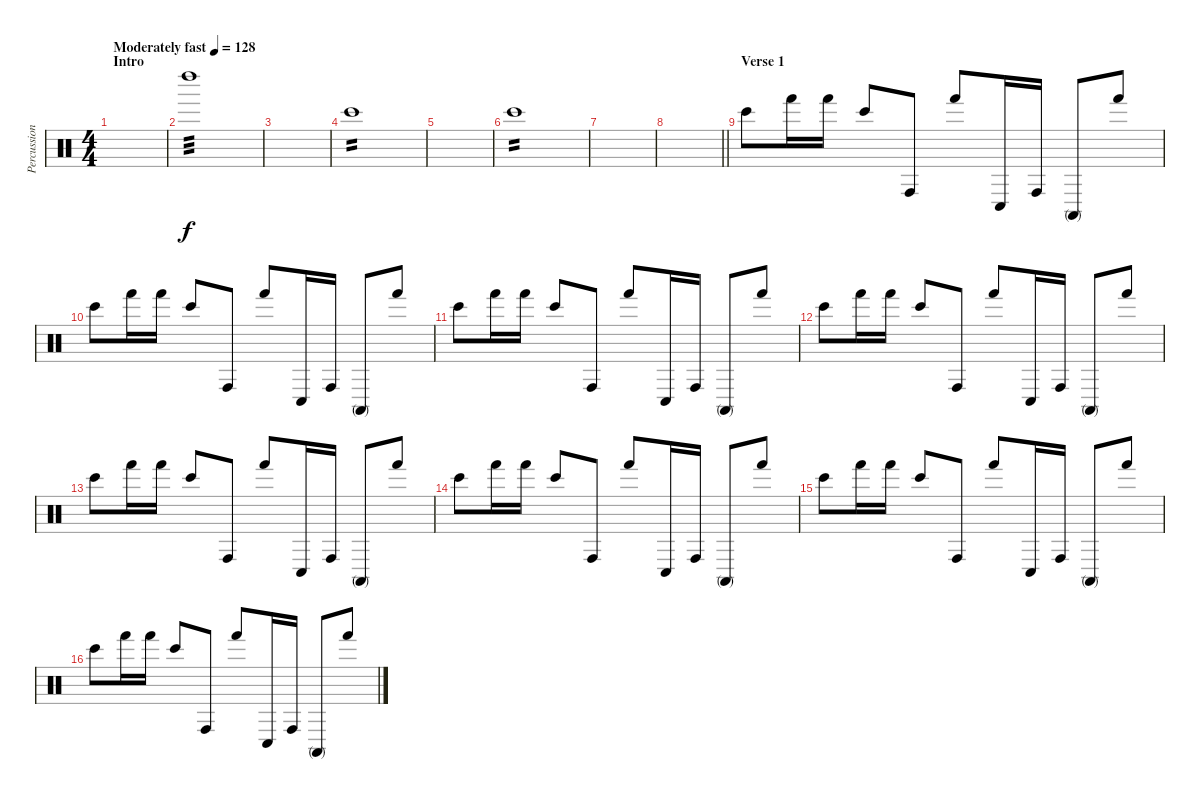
\track ("Percussioni" "Percussion") {instrument percussion}
\staff {score}
\articulation defaults
\ts (4 4)
\section ("" "Intro")
\tempo (128 "Moderately fast")
\clef neutral
\ks c
|
"Left Maraca (hit)".1{tp 3} |
|
"Bongo High (hit)".1{tp 2} |
|
"Bongo High (hit)".1{tp 2} |
|
\barLineRight lightlight
|
\section ("" "Verse 1")
"Bongo High (hit)".8 "Hand (hit)".16 "Hand (hit)".16 "Bongo High (hit)".8 "Conga high (hit)".8 "Hand (hit)".8 "Conga low (hit)".16 "Conga high (hit)".16 "Conga high (mute)".8 "Hand (hit)".8 |
"Bongo High (hit)".8 "Hand (hit)".16 "Hand (hit)".16 "Bongo High (hit)".8 "Conga high (hit)".8 "Hand (hit)".8 "Conga low (hit)".16 "Conga high (hit)".16 "Conga high (mute)".8 "Hand (hit)".8 |
"Bongo High (hit)".8 "Hand (hit)".16 "Hand (hit)".16 "Bongo High (hit)".8 "Conga high (hit)".8 "Hand (hit)".8 "Conga low (hit)".16 "Conga high (hit)".16 "Conga high (mute)".8 "Hand (hit)".8 |
"Bongo High (hit)".8 "Hand (hit)".16 "Hand (hit)".16 "Bongo High (hit)".8 "Conga high (hit)".8 "Hand (hit)".8 "Conga low (hit)".16 "Conga high (hit)".16 "Conga high (mute)".8 "Hand (hit)".8 |
"Bongo High (hit)".8 "Hand (hit)".16 "Hand (hit)".16 "Bongo High (hit)".8 "Conga high (hit)".8 "Hand (hit)".8 "Conga low (hit)".16 "Conga high (hit)".16 "Conga high (mute)".8 "Hand (hit)".8 |
"Bongo High (hit)".8 "Hand (hit)".16 "Hand (hit)".16 "Bongo High (hit)".8 "Conga high (hit)".8 "Hand (hit)".8 "Conga low (hit)".16 "Conga high (hit)".16 "Conga high (mute)".8 "Hand (hit)".8 |
"Bongo High (hit)".8 "Hand (hit)".16 "Hand (hit)".16 "Bongo High (hit)".8 "Conga high (hit)".8 "Hand (hit)".8 "Conga low (hit)".16 "Conga high (hit)".16 "Conga high (mute)".8 "Hand (hit)".8 |
"Bongo High (hit)".8 "Hand (hit)".16 "Hand (hit)".16 "Bongo High (hit)".8 "Conga high (hit)".8 "Hand (hit)".8 "Conga low (hit)".16 "Conga high (hit)".16 "Conga high (mute)".8 "Hand (hit)".8
